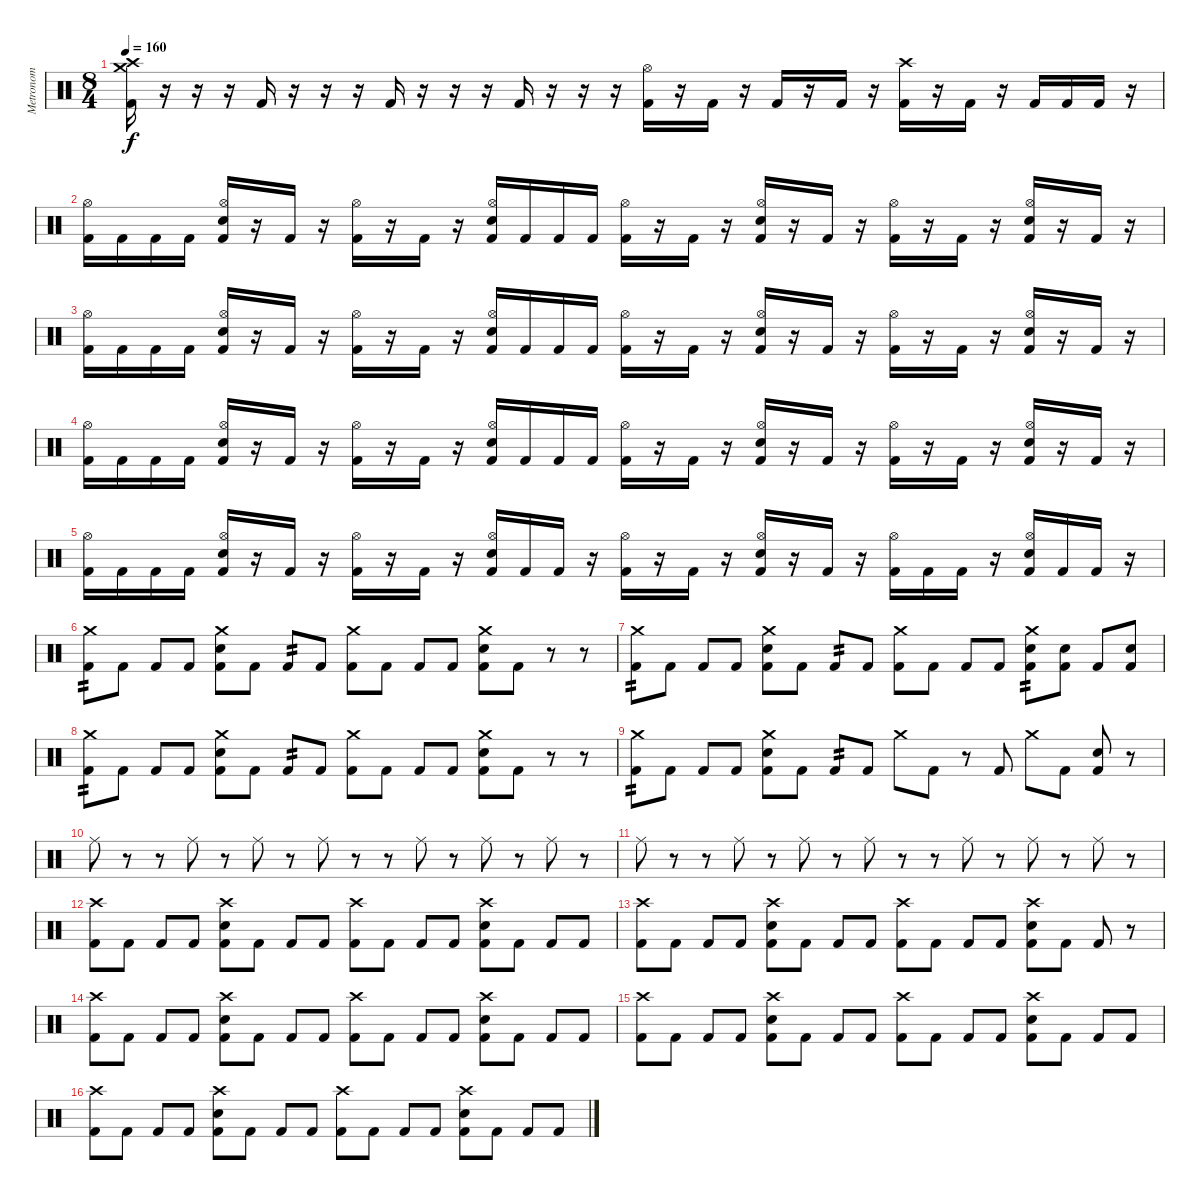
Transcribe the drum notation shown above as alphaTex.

\track ("Metronom" "Metronom") {instrument percussion}
\staff
\articulation defaults
\ts (8 4)
\tempo 160
\clef neutral
\ks c
("Crash high (hit)" "Crash medium (hit)" "Kick (hit) 2").16{dy f} r.16 r.16 r.16 "Kick (hit) 2".16 r.16 r.16 r.16 "Kick (hit) 2".16 r.16 r.16 r.16 "Kick (hit) 2".16 r.16 r.16 r.16 ("Hi-Hat (open)" "Kick (hit) 2").16 r.16 "Kick (hit) 2".16 r.16 "Kick (hit) 2".16 r.16 "Kick (hit) 2".16 r.16 ("Crash high (hit)" "Kick (hit) 2").16 r.16 "Kick (hit) 2".16 r.16 "Kick (hit) 2".16 "Kick (hit) 2".16 "Kick (hit) 2".16 r.16 |
("Hi-Hat (open)" "Kick (hit) 2").16 "Kick (hit) 2".16 "Kick (hit) 2".16 "Kick (hit) 2".16 ("Hi-Hat (open)" "Electric Snare (hit)" "Kick (hit) 2").16 r.16 "Kick (hit) 2".16 r.16 ("Hi-Hat (open)" "Kick (hit) 2").16 r.16 "Kick (hit) 2".16 r.16 ("Hi-Hat (open)" "Electric Snare (hit)" "Kick (hit) 2").16 "Kick (hit) 2".16 "Kick (hit) 2".16 "Kick (hit) 2".16 ("Hi-Hat (open)" "Kick (hit) 2").16 r.16 "Kick (hit) 2".16 r.16 ("Hi-Hat (open)" "Electric Snare (hit)" "Kick (hit) 2").16 r.16 "Kick (hit) 2".16 r.16 ("Hi-Hat (open)" "Kick (hit) 2").16 r.16 "Kick (hit) 2".16 r.16 ("Hi-Hat (open)" "Electric Snare (hit)" "Kick (hit) 2").16 r.16 "Kick (hit) 2".16 r.16 |
("Hi-Hat (open)" "Kick (hit) 2").16 "Kick (hit) 2".16 "Kick (hit) 2".16 "Kick (hit) 2".16 ("Hi-Hat (open)" "Electric Snare (hit)" "Kick (hit) 2").16 r.16 "Kick (hit) 2".16 r.16 ("Hi-Hat (open)" "Kick (hit) 2").16 r.16 "Kick (hit) 2".16 r.16 ("Hi-Hat (open)" "Electric Snare (hit)" "Kick (hit) 2").16 "Kick (hit) 2".16 "Kick (hit) 2".16 "Kick (hit) 2".16 ("Hi-Hat (open)" "Kick (hit) 2").16 r.16 "Kick (hit) 2".16 r.16 ("Hi-Hat (open)" "Electric Snare (hit)" "Kick (hit) 2").16 r.16 "Kick (hit) 2".16 r.16 ("Hi-Hat (open)" "Kick (hit) 2").16 r.16 "Kick (hit) 2".16 r.16 ("Hi-Hat (open)" "Electric Snare (hit)" "Kick (hit) 2").16 r.16 "Kick (hit) 2".16 r.16 |
("Hi-Hat (open)" "Kick (hit) 2").16 "Kick (hit) 2".16 "Kick (hit) 2".16 "Kick (hit) 2".16 ("Hi-Hat (open)" "Electric Snare (hit)" "Kick (hit) 2").16 r.16 "Kick (hit) 2".16 r.16 ("Hi-Hat (open)" "Kick (hit) 2").16 r.16 "Kick (hit) 2".16 r.16 ("Hi-Hat (open)" "Electric Snare (hit)" "Kick (hit) 2").16 "Kick (hit) 2".16 "Kick (hit) 2".16 "Kick (hit) 2".16 ("Hi-Hat (open)" "Kick (hit) 2").16 r.16 "Kick (hit) 2".16 r.16 ("Hi-Hat (open)" "Electric Snare (hit)" "Kick (hit) 2").16 r.16 "Kick (hit) 2".16 r.16 ("Hi-Hat (open)" "Kick (hit) 2").16 r.16 "Kick (hit) 2".16 r.16 ("Hi-Hat (open)" "Electric Snare (hit)" "Kick (hit) 2").16 r.16 "Kick (hit) 2".16 r.16 |
("Hi-Hat (open)" "Kick (hit) 2").16 "Kick (hit) 2".16 "Kick (hit) 2".16 "Kick (hit) 2".16 ("Hi-Hat (open)" "Electric Snare (hit)" "Kick (hit) 2").16 r.16 "Kick (hit) 2".16 r.16 ("Hi-Hat (open)" "Kick (hit) 2").16 r.16 "Kick (hit) 2".16 r.16 ("Hi-Hat (open)" "Electric Snare (hit)" "Kick (hit) 2").16 "Kick (hit) 2".16 "Kick (hit) 2".16 r.16 ("Hi-Hat (open)" "Kick (hit) 2").16 r.16 "Kick (hit) 2".16 r.16 ("Hi-Hat (open)" "Electric Snare (hit)" "Kick (hit) 2").16 r.16 "Kick (hit) 2".16 r.16 ("Hi-Hat (open)" "Kick (hit) 2").16 "Kick (hit) 2".16 "Kick (hit) 2".16 r.16 ("Hi-Hat (open)" "Electric Snare (hit)" "Kick (hit) 2").16 "Kick (hit) 2".16 "Kick (hit) 2".16 r.16 |
("Crash medium (hit)" "Kick (hit) 2").8{tp 2} "Kick (hit) 2".8 "Kick (hit) 2".8 "Kick (hit) 2".8 ("Crash medium (hit)" "Electric Snare (hit)" "Kick (hit) 2").8 "Kick (hit) 2".8 "Kick (hit) 2".8{tp 2} "Kick (hit) 2".8 ("Crash medium (hit)" "Kick (hit) 2").8 "Kick (hit) 2".8 "Kick (hit) 2".8 "Kick (hit) 2".8 ("Crash medium (hit)" "Electric Snare (hit)" "Kick (hit) 2").8 "Kick (hit) 2".8 r.8 r.8 |
("Crash medium (hit)" "Kick (hit) 2").8{tp 2} "Kick (hit) 2".8 "Kick (hit) 2".8 "Kick (hit) 2".8 ("Crash medium (hit)" "Electric Snare (hit)" "Kick (hit) 2").8 "Kick (hit) 2".8 "Kick (hit) 2".8{tp 2} "Kick (hit) 2".8 ("Crash medium (hit)" "Kick (hit) 2").8 "Kick (hit) 2".8 "Kick (hit) 2".8 "Kick (hit) 2".8 ("Crash medium (hit)" "Electric Snare (hit)" "Kick (hit) 2").8{tp 2} ("Electric Snare (hit)" "Kick (hit) 2").8 "Kick (hit) 2".8 ("Electric Snare (hit)" "Kick (hit) 2").8 |
("Crash medium (hit)" "Kick (hit) 2").8{tp 2} "Kick (hit) 2".8 "Kick (hit) 2".8 "Kick (hit) 2".8 ("Crash medium (hit)" "Electric Snare (hit)" "Kick (hit) 2").8 "Kick (hit) 2".8 "Kick (hit) 2".8{tp 2} "Kick (hit) 2".8 ("Crash medium (hit)" "Kick (hit) 2").8 "Kick (hit) 2".8 "Kick (hit) 2".8 "Kick (hit) 2".8 ("Crash medium (hit)" "Electric Snare (hit)" "Kick (hit) 2").8 "Kick (hit) 2".8 r.8 r.8 |
("Crash medium (hit)" "Kick (hit) 2").8{tp 2} "Kick (hit) 2".8 "Kick (hit) 2".8 "Kick (hit) 2".8 ("Crash medium (hit)" "Electric Snare (hit)" "Kick (hit) 2").8 "Kick (hit) 2".8 "Kick (hit) 2".8{tp 2} "Kick (hit) 2".8 "Crash medium (hit)".8 "Kick (hit) 2".8 r.8 "Kick (hit) 2".8 "Crash medium (hit)".8 "Kick (hit) 2".8 ("Electric Snare (hit)" "Kick (hit) 2").8 r.8 |
"Ride (middle)".8 r.8 r.8 "Ride (middle)".8 r.8 "Ride (middle)".8 r.8 "Ride (middle)".8 r.8 r.8 "Ride (middle)".8 r.8 "Ride (middle)".8 r.8 "Ride (middle)".8 r.8 |
"Ride (middle)".8 r.8 r.8 "Ride (middle)".8 r.8 "Ride (middle)".8 r.8 "Ride (middle)".8 r.8 r.8 "Ride (middle)".8 r.8 "Ride (middle)".8 r.8 "Ride (middle)".8 r.8 |
("Crash high (hit)" "Kick (hit) 2").8 "Kick (hit) 2".8 "Kick (hit) 2".8 "Kick (hit) 2".8 ("Crash high (hit)" "Electric Snare (hit)" "Kick (hit) 2").8 "Kick (hit) 2".8 "Kick (hit) 2".8 "Kick (hit) 2".8 ("Crash high (hit)" "Kick (hit) 2").8 "Kick (hit) 2".8 "Kick (hit) 2".8 "Kick (hit) 2".8 ("Crash high (hit)" "Electric Snare (hit)" "Kick (hit) 2").8 "Kick (hit) 2".8 "Kick (hit) 2".8 "Kick (hit) 2".8 |
("Crash high (hit)" "Kick (hit) 2").8 "Kick (hit) 2".8 "Kick (hit) 2".8 "Kick (hit) 2".8 ("Crash high (hit)" "Electric Snare (hit)" "Kick (hit) 2").8 "Kick (hit) 2".8 "Kick (hit) 2".8 "Kick (hit) 2".8 ("Crash high (hit)" "Kick (hit) 2").8 "Kick (hit) 2".8 "Kick (hit) 2".8 "Kick (hit) 2".8 ("Crash high (hit)" "Electric Snare (hit)" "Kick (hit) 2").8 "Kick (hit) 2".8 "Kick (hit) 2".8 r.8 |
("Crash high (hit)" "Kick (hit) 2").8 "Kick (hit) 2".8 "Kick (hit) 2".8 "Kick (hit) 2".8 ("Crash high (hit)" "Electric Snare (hit)" "Kick (hit) 2").8 "Kick (hit) 2".8 "Kick (hit) 2".8 "Kick (hit) 2".8 ("Crash high (hit)" "Kick (hit) 2").8 "Kick (hit) 2".8 "Kick (hit) 2".8 "Kick (hit) 2".8 ("Crash high (hit)" "Electric Snare (hit)" "Kick (hit) 2").8 "Kick (hit) 2".8 "Kick (hit) 2".8 "Kick (hit) 2".8 |
("Crash high (hit)" "Kick (hit) 2").8 "Kick (hit) 2".8 "Kick (hit) 2".8 "Kick (hit) 2".8 ("Crash high (hit)" "Electric Snare (hit)" "Kick (hit) 2").8 "Kick (hit) 2".8 "Kick (hit) 2".8 "Kick (hit) 2".8 ("Crash high (hit)" "Kick (hit) 2").8 "Kick (hit) 2".8 "Kick (hit) 2".8 "Kick (hit) 2".8 ("Crash high (hit)" "Electric Snare (hit)" "Kick (hit) 2").8 "Kick (hit) 2".8 "Kick (hit) 2".8 "Kick (hit) 2".8 |
("Crash high (hit)" "Kick (hit) 2").8 "Kick (hit) 2".8 "Kick (hit) 2".8 "Kick (hit) 2".8 ("Crash high (hit)" "Electric Snare (hit)" "Kick (hit) 2").8 "Kick (hit) 2".8 "Kick (hit) 2".8 "Kick (hit) 2".8 ("Crash high (hit)" "Kick (hit) 2").8 "Kick (hit) 2".8 "Kick (hit) 2".8 "Kick (hit) 2".8 ("Crash high (hit)" "Electric Snare (hit)" "Kick (hit) 2").8 "Kick (hit) 2".8 "Kick (hit) 2".8 "Kick (hit) 2".8
